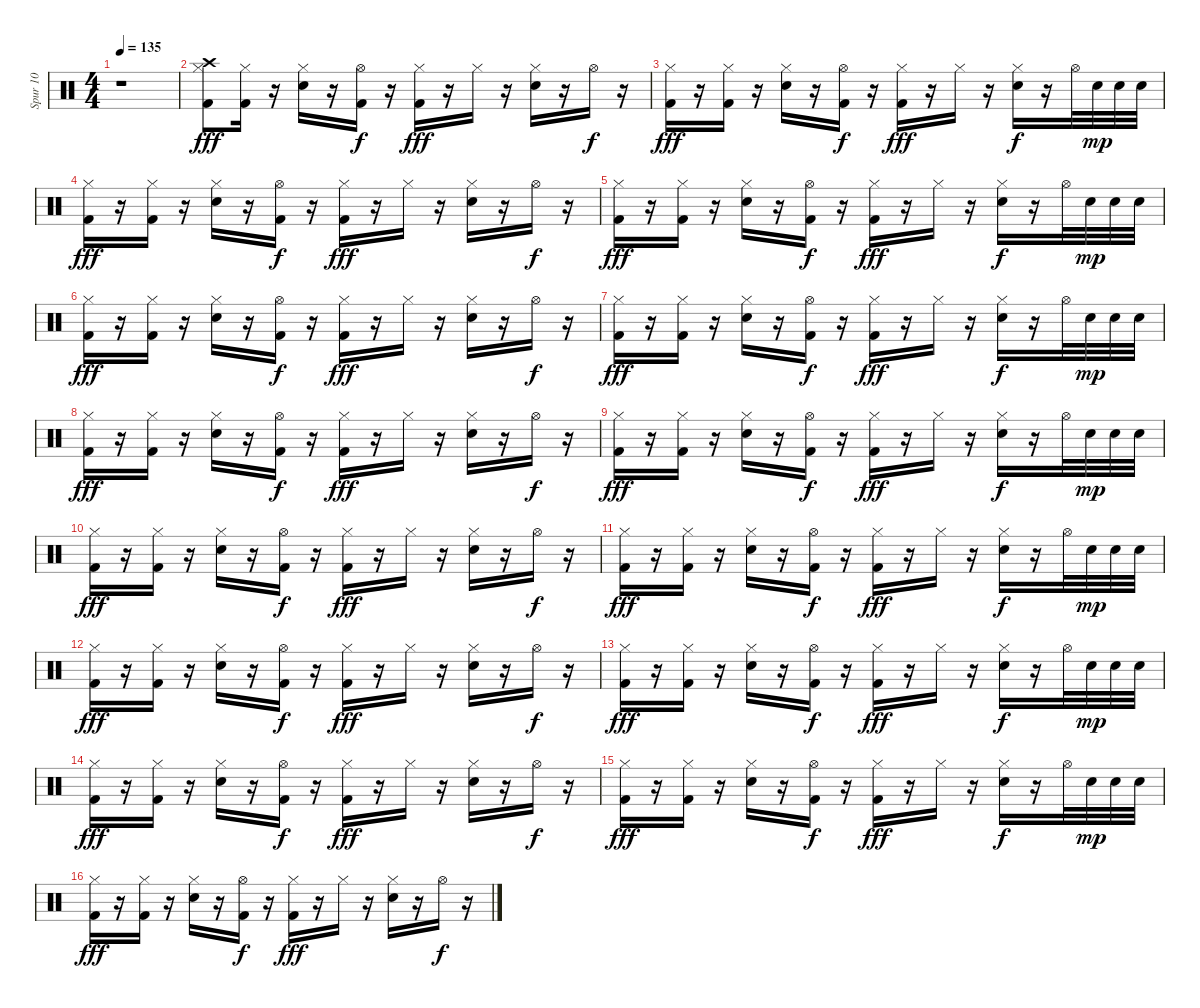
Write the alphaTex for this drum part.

\track ("Spur 10" "Spur 10") {instrument percussion}
\staff {score}
\articulation defaults
\ts (4 4)
\tempo 135
\clef neutral
\ks c
r.1{dy fff} |
("Crash high (hit)" "Hi-Hat (closed)" "Kick (hit) 2").8 ("Hi-Hat (closed)" "Kick (hit) 2").16 r.16 ("Hi-Hat (closed)" "Electric Snare (hit)").16 r.16 ("Hi-Hat (open)" "Kick (hit) 2").16{dy f} r.16 ("Hi-Hat (closed)" "Kick (hit) 2").16{dy fff} r.16 "Hi-Hat (closed)".16 r.16 ("Hi-Hat (closed)" "Electric Snare (hit)").16 r.16 "Hi-Hat (open)".16{dy f} r.16 |
("Hi-Hat (closed)" "Kick (hit) 2").16{dy fff} r.16 ("Hi-Hat (closed)" "Kick (hit) 2").16 r.16 ("Hi-Hat (closed)" "Electric Snare (hit)").16 r.16 ("Hi-Hat (open)" "Kick (hit) 2").16{dy f} r.16 ("Hi-Hat (closed)" "Kick (hit) 2").16{dy fff} r.16 "Hi-Hat (closed)".16 r.16 ("Electric Snare (hit)" "Hi-Hat (closed)").16{dy f} r.16 "Hi-Hat (open)".32 "Snare (hit) 2".32{dy mp} "Snare (hit) 2".32 "Snare (hit) 2".32 |
("Hi-Hat (closed)" "Kick (hit) 2").16{dy fff} r.16 ("Hi-Hat (closed)" "Kick (hit) 2").16 r.16 ("Hi-Hat (closed)" "Electric Snare (hit)").16 r.16 ("Hi-Hat (open)" "Kick (hit) 2").16{dy f} r.16 ("Hi-Hat (closed)" "Kick (hit) 2").16{dy fff} r.16 "Hi-Hat (closed)".16 r.16 ("Hi-Hat (closed)" "Electric Snare (hit)").16 r.16 "Hi-Hat (open)".16{dy f} r.16 |
("Hi-Hat (closed)" "Kick (hit) 2").16{dy fff} r.16 ("Hi-Hat (closed)" "Kick (hit) 2").16 r.16 ("Hi-Hat (closed)" "Electric Snare (hit)").16 r.16 ("Hi-Hat (open)" "Kick (hit) 2").16{dy f} r.16 ("Hi-Hat (closed)" "Kick (hit) 2").16{dy fff} r.16 "Hi-Hat (closed)".16 r.16 ("Electric Snare (hit)" "Hi-Hat (closed)").16{dy f} r.16 "Hi-Hat (open)".32 "Snare (hit) 2".32{dy mp} "Snare (hit) 2".32 "Snare (hit) 2".32 |
("Hi-Hat (closed)" "Kick (hit) 2").16{dy fff} r.16 ("Hi-Hat (closed)" "Kick (hit) 2").16 r.16 ("Hi-Hat (closed)" "Electric Snare (hit)").16 r.16 ("Hi-Hat (open)" "Kick (hit) 2").16{dy f} r.16 ("Hi-Hat (closed)" "Kick (hit) 2").16{dy fff} r.16 "Hi-Hat (closed)".16 r.16 ("Hi-Hat (closed)" "Electric Snare (hit)").16 r.16 "Hi-Hat (open)".16{dy f} r.16 |
("Hi-Hat (closed)" "Kick (hit) 2").16{dy fff} r.16 ("Hi-Hat (closed)" "Kick (hit) 2").16 r.16 ("Hi-Hat (closed)" "Electric Snare (hit)").16 r.16 ("Hi-Hat (open)" "Kick (hit) 2").16{dy f} r.16 ("Hi-Hat (closed)" "Kick (hit) 2").16{dy fff} r.16 "Hi-Hat (closed)".16 r.16 ("Electric Snare (hit)" "Hi-Hat (closed)").16{dy f} r.16 "Hi-Hat (open)".32 "Snare (hit) 2".32{dy mp} "Snare (hit) 2".32 "Snare (hit) 2".32 |
("Hi-Hat (closed)" "Kick (hit) 2").16{dy fff} r.16 ("Hi-Hat (closed)" "Kick (hit) 2").16 r.16 ("Hi-Hat (closed)" "Electric Snare (hit)").16 r.16 ("Hi-Hat (open)" "Kick (hit) 2").16{dy f} r.16 ("Hi-Hat (closed)" "Kick (hit) 2").16{dy fff} r.16 "Hi-Hat (closed)".16 r.16 ("Hi-Hat (closed)" "Electric Snare (hit)").16 r.16 "Hi-Hat (open)".16{dy f} r.16 |
("Hi-Hat (closed)" "Kick (hit) 2").16{dy fff} r.16 ("Hi-Hat (closed)" "Kick (hit) 2").16 r.16 ("Hi-Hat (closed)" "Electric Snare (hit)").16 r.16 ("Hi-Hat (open)" "Kick (hit) 2").16{dy f} r.16 ("Hi-Hat (closed)" "Kick (hit) 2").16{dy fff} r.16 "Hi-Hat (closed)".16 r.16 ("Electric Snare (hit)" "Hi-Hat (closed)").16{dy f} r.16 "Hi-Hat (open)".32 "Snare (hit) 2".32{dy mp} "Snare (hit) 2".32 "Snare (hit) 2".32 |
("Hi-Hat (closed)" "Kick (hit) 2").16{dy fff} r.16 ("Hi-Hat (closed)" "Kick (hit) 2").16 r.16 ("Hi-Hat (closed)" "Electric Snare (hit)").16 r.16 ("Hi-Hat (open)" "Kick (hit) 2").16{dy f} r.16 ("Hi-Hat (closed)" "Kick (hit) 2").16{dy fff} r.16 "Hi-Hat (closed)".16 r.16 ("Hi-Hat (closed)" "Electric Snare (hit)").16 r.16 "Hi-Hat (open)".16{dy f} r.16 |
("Hi-Hat (closed)" "Kick (hit) 2").16{dy fff} r.16 ("Hi-Hat (closed)" "Kick (hit) 2").16 r.16 ("Hi-Hat (closed)" "Electric Snare (hit)").16 r.16 ("Hi-Hat (open)" "Kick (hit) 2").16{dy f} r.16 ("Hi-Hat (closed)" "Kick (hit) 2").16{dy fff} r.16 "Hi-Hat (closed)".16 r.16 ("Electric Snare (hit)" "Hi-Hat (closed)").16{dy f} r.16 "Hi-Hat (open)".32 "Snare (hit) 2".32{dy mp} "Snare (hit) 2".32 "Snare (hit) 2".32 |
("Hi-Hat (closed)" "Kick (hit) 2").16{dy fff} r.16 ("Hi-Hat (closed)" "Kick (hit) 2").16 r.16 ("Hi-Hat (closed)" "Electric Snare (hit)").16 r.16 ("Hi-Hat (open)" "Kick (hit) 2").16{dy f} r.16 ("Hi-Hat (closed)" "Kick (hit) 2").16{dy fff} r.16 "Hi-Hat (closed)".16 r.16 ("Hi-Hat (closed)" "Electric Snare (hit)").16 r.16 "Hi-Hat (open)".16{dy f} r.16 |
("Hi-Hat (closed)" "Kick (hit) 2").16{dy fff} r.16 ("Hi-Hat (closed)" "Kick (hit) 2").16 r.16 ("Hi-Hat (closed)" "Electric Snare (hit)").16 r.16 ("Hi-Hat (open)" "Kick (hit) 2").16{dy f} r.16 ("Hi-Hat (closed)" "Kick (hit) 2").16{dy fff} r.16 "Hi-Hat (closed)".16 r.16 ("Electric Snare (hit)" "Hi-Hat (closed)").16{dy f} r.16 "Hi-Hat (open)".32 "Snare (hit) 2".32{dy mp} "Snare (hit) 2".32 "Snare (hit) 2".32 |
("Hi-Hat (closed)" "Kick (hit) 2").16{dy fff} r.16 ("Hi-Hat (closed)" "Kick (hit) 2").16 r.16 ("Hi-Hat (closed)" "Electric Snare (hit)").16 r.16 ("Hi-Hat (open)" "Kick (hit) 2").16{dy f} r.16 ("Hi-Hat (closed)" "Kick (hit) 2").16{dy fff} r.16 "Hi-Hat (closed)".16 r.16 ("Hi-Hat (closed)" "Electric Snare (hit)").16 r.16 "Hi-Hat (open)".16{dy f} r.16 |
("Hi-Hat (closed)" "Kick (hit) 2").16{dy fff} r.16 ("Hi-Hat (closed)" "Kick (hit) 2").16 r.16 ("Hi-Hat (closed)" "Electric Snare (hit)").16 r.16 ("Hi-Hat (open)" "Kick (hit) 2").16{dy f} r.16 ("Hi-Hat (closed)" "Kick (hit) 2").16{dy fff} r.16 "Hi-Hat (closed)".16 r.16 ("Electric Snare (hit)" "Hi-Hat (closed)").16{dy f} r.16 "Hi-Hat (open)".32 "Snare (hit) 2".32{dy mp} "Snare (hit) 2".32 "Snare (hit) 2".32 |
("Hi-Hat (closed)" "Kick (hit) 2").16{dy fff} r.16 ("Hi-Hat (closed)" "Kick (hit) 2").16 r.16 ("Hi-Hat (closed)" "Electric Snare (hit)").16 r.16 ("Hi-Hat (open)" "Kick (hit) 2").16{dy f} r.16 ("Hi-Hat (closed)" "Kick (hit) 2").16{dy fff} r.16 "Hi-Hat (closed)".16 r.16 ("Hi-Hat (closed)" "Electric Snare (hit)").16 r.16 "Hi-Hat (open)".16{dy f} r.16
